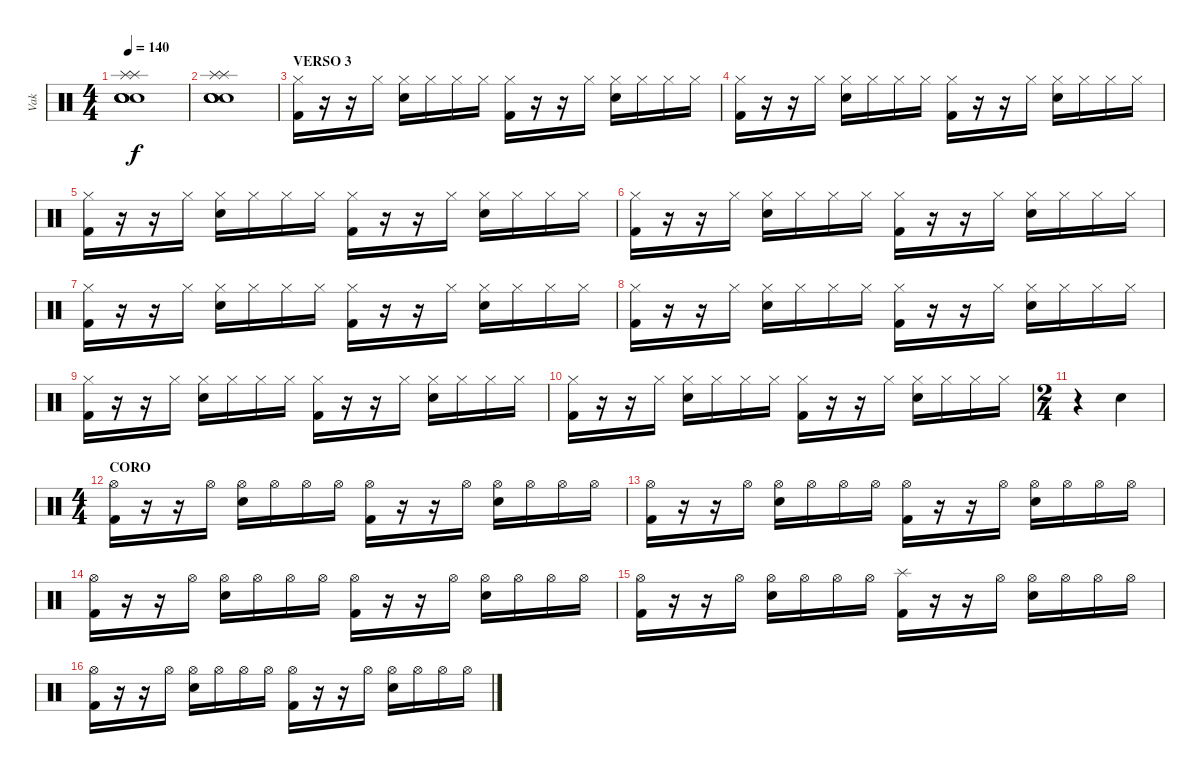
\track ("Vak" "Vak") {instrument percussion}
\staff {score}
\articulation defaults
\ts (4 4)
\tempo 140
\clef neutral
\ks c
("Snare (hit) 2" "Splash (hit)" "Snare (hit) 2" "Splash (hit)" "Snare (hit) 2" "Snare (hit) 2").1{dy f} |
("Snare (hit) 2" "Splash (hit)" "Snare (hit) 2" "Splash (hit)" "Snare (hit) 2" "Snare (hit) 2").1 |
\section ("" "VERSO 3")
("Hi-Hat (closed)" "Kick (hit) 2").16 r.16 r.16 "Hi-Hat (closed)".16 ("Hi-Hat (closed)" "Snare (hit) 2").16 "Hi-Hat (closed)".16 "Hi-Hat (closed)".16 "Hi-Hat (closed)".16 ("Hi-Hat (closed)" "Kick (hit) 2").16 r.16 r.16 "Hi-Hat (closed)".16 ("Hi-Hat (closed)" "Snare (hit) 2").16 "Hi-Hat (closed)".16 "Hi-Hat (closed)".16 "Hi-Hat (closed)".16 |
("Hi-Hat (closed)" "Kick (hit) 2").16 r.16 r.16 "Hi-Hat (closed)".16 ("Hi-Hat (closed)" "Snare (hit) 2").16 "Hi-Hat (closed)".16 "Hi-Hat (closed)".16 "Hi-Hat (closed)".16 ("Hi-Hat (closed)" "Kick (hit) 2").16 r.16 r.16 "Hi-Hat (closed)".16 ("Hi-Hat (closed)" "Snare (hit) 2").16 "Hi-Hat (closed)".16 "Hi-Hat (closed)".16 "Hi-Hat (closed)".16 |
("Hi-Hat (closed)" "Kick (hit) 2").16 r.16 r.16 "Hi-Hat (closed)".16 ("Hi-Hat (closed)" "Snare (hit) 2").16 "Hi-Hat (closed)".16 "Hi-Hat (closed)".16 "Hi-Hat (closed)".16 ("Hi-Hat (closed)" "Kick (hit) 2").16 r.16 r.16 "Hi-Hat (closed)".16 ("Hi-Hat (closed)" "Snare (hit) 2").16 "Hi-Hat (closed)".16 "Hi-Hat (closed)".16 "Hi-Hat (closed)".16 |
("Hi-Hat (closed)" "Kick (hit) 2").16 r.16 r.16 "Hi-Hat (closed)".16 ("Hi-Hat (closed)" "Snare (hit) 2").16 "Hi-Hat (closed)".16 "Hi-Hat (closed)".16 "Hi-Hat (closed)".16 ("Hi-Hat (closed)" "Kick (hit) 2").16 r.16 r.16 "Hi-Hat (closed)".16 ("Hi-Hat (closed)" "Snare (hit) 2").16 "Hi-Hat (closed)".16 "Hi-Hat (closed)".16 "Hi-Hat (closed)".16 |
("Hi-Hat (closed)" "Kick (hit) 2").16 r.16 r.16 "Hi-Hat (closed)".16 ("Hi-Hat (closed)" "Snare (hit) 2").16 "Hi-Hat (closed)".16 "Hi-Hat (closed)".16 "Hi-Hat (closed)".16 ("Hi-Hat (closed)" "Kick (hit) 2").16 r.16 r.16 "Hi-Hat (closed)".16 ("Hi-Hat (closed)" "Snare (hit) 2").16 "Hi-Hat (closed)".16 "Hi-Hat (closed)".16 "Hi-Hat (closed)".16 |
("Hi-Hat (closed)" "Kick (hit) 2").16 r.16 r.16 "Hi-Hat (closed)".16 ("Hi-Hat (closed)" "Snare (hit) 2").16 "Hi-Hat (closed)".16 "Hi-Hat (closed)".16 "Hi-Hat (closed)".16 ("Hi-Hat (closed)" "Kick (hit) 2").16 r.16 r.16 "Hi-Hat (closed)".16 ("Hi-Hat (closed)" "Snare (hit) 2").16 "Hi-Hat (closed)".16 "Hi-Hat (closed)".16 "Hi-Hat (closed)".16 |
("Hi-Hat (closed)" "Kick (hit) 2").16 r.16 r.16 "Hi-Hat (closed)".16 ("Hi-Hat (closed)" "Snare (hit) 2").16 "Hi-Hat (closed)".16 "Hi-Hat (closed)".16 "Hi-Hat (closed)".16 ("Hi-Hat (closed)" "Kick (hit) 2").16 r.16 r.16 "Hi-Hat (closed)".16 ("Hi-Hat (closed)" "Snare (hit) 2").16 "Hi-Hat (closed)".16 "Hi-Hat (closed)".16 "Hi-Hat (closed)".16 |
("Hi-Hat (closed)" "Kick (hit) 2").16 r.16 r.16 "Hi-Hat (closed)".16 ("Hi-Hat (closed)" "Snare (hit) 2").16 "Hi-Hat (closed)".16 "Hi-Hat (closed)".16 "Hi-Hat (closed)".16 ("Hi-Hat (closed)" "Kick (hit) 2").16 r.16 r.16 "Hi-Hat (closed)".16 ("Hi-Hat (closed)" "Snare (hit) 2").16 "Hi-Hat (closed)".16 "Hi-Hat (closed)".16 "Hi-Hat (closed)".16 |
\ts (2 4)
r.4 "Snare (hit) 2".4 |
\ts (4 4)
\section ("" "CORO")
("Hi-Hat (open)" "Kick (hit) 2").16 r.16 r.16 "Hi-Hat (open)".16 ("Hi-Hat (open)" "Snare (hit) 2").16 "Hi-Hat (open)".16 "Hi-Hat (open)".16 "Hi-Hat (open)".16 ("Hi-Hat (open)" "Kick (hit) 2").16 r.16 r.16 "Hi-Hat (open)".16 ("Hi-Hat (open)" "Snare (hit) 2").16 "Hi-Hat (open)".16 "Hi-Hat (open)".16 "Hi-Hat (open)".16 |
("Hi-Hat (open)" "Kick (hit) 2").16 r.16 r.16 "Hi-Hat (open)".16 ("Hi-Hat (open)" "Snare (hit) 2").16 "Hi-Hat (open)".16 "Hi-Hat (open)".16 "Hi-Hat (open)".16 ("Hi-Hat (open)" "Kick (hit) 2").16 r.16 r.16 "Hi-Hat (open)".16 ("Hi-Hat (open)" "Snare (hit) 2").16 "Hi-Hat (open)".16 "Hi-Hat (open)".16 "Hi-Hat (open)".16 |
("Hi-Hat (open)" "Kick (hit) 2").16 r.16 r.16 "Hi-Hat (open)".16 ("Hi-Hat (open)" "Snare (hit) 2").16 "Hi-Hat (open)".16 "Hi-Hat (open)".16 "Hi-Hat (open)".16 ("Hi-Hat (open)" "Kick (hit) 2").16 r.16 r.16 "Hi-Hat (open)".16 ("Hi-Hat (open)" "Snare (hit) 2").16 "Hi-Hat (open)".16 "Hi-Hat (open)".16 "Hi-Hat (open)".16 |
("Hi-Hat (open)" "Kick (hit) 2").16 r.16 r.16 "Hi-Hat (open)".16 ("Hi-Hat (open)" "Snare (hit) 2").16 "Hi-Hat (open)".16 "Hi-Hat (open)".16 "Hi-Hat (open)".16 ("Splash (hit)" "Kick (hit) 2").16 r.16 r.16 "Hi-Hat (open)".16 ("Hi-Hat (open)" "Snare (hit) 2").16 "Hi-Hat (open)".16 "Hi-Hat (open)".16 "Hi-Hat (open)".16 |
("Hi-Hat (open)" "Kick (hit) 2").16 r.16 r.16 "Hi-Hat (open)".16 ("Hi-Hat (open)" "Snare (hit) 2").16 "Hi-Hat (open)".16 "Hi-Hat (open)".16 "Hi-Hat (open)".16 ("Hi-Hat (open)" "Kick (hit) 2").16 r.16 r.16 "Hi-Hat (open)".16 ("Hi-Hat (open)" "Snare (hit) 2").16 "Hi-Hat (open)".16 "Hi-Hat (open)".16 "Hi-Hat (open)".16
